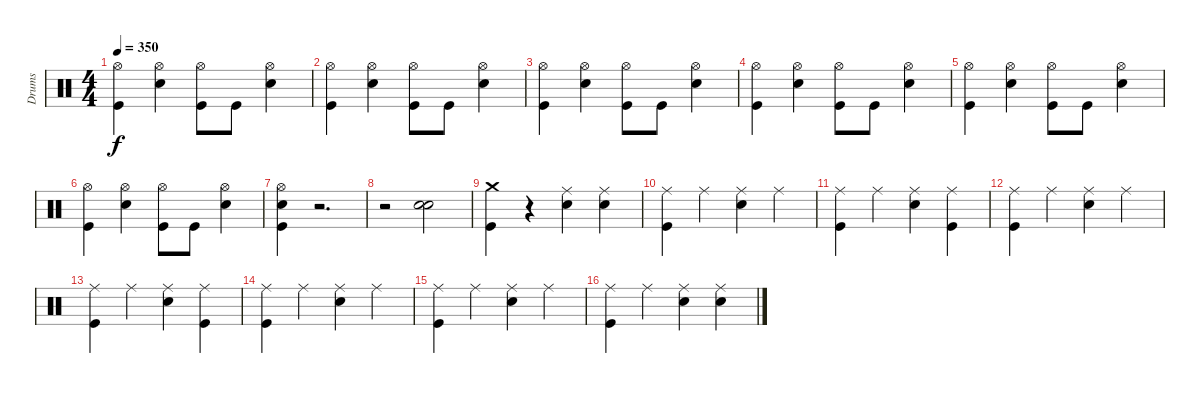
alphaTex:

\track ("Drums" "Drums") {instrument percussion}
\staff {score}
\articulation defaults
\ts (4 4)
\tempo 350
\clef neutral
\ks c
("Hi-Hat (open)" "Kick (hit)").4{dy f} ("Hi-Hat (open)" "Snare (hit) 2").4 ("Hi-Hat (open)" "Kick (hit)").8 "Kick (hit)".8 ("Hi-Hat (open)" "Snare (hit) 2").4 |
("Hi-Hat (open)" "Kick (hit)").4 ("Hi-Hat (open)" "Snare (hit) 2").4 ("Hi-Hat (open)" "Kick (hit)").8 "Kick (hit)".8 ("Hi-Hat (open)" "Snare (hit) 2").4 |
("Hi-Hat (open)" "Kick (hit)").4 ("Hi-Hat (open)" "Snare (hit) 2").4 ("Hi-Hat (open)" "Kick (hit)").8 "Kick (hit)".8 ("Hi-Hat (open)" "Snare (hit) 2").4 |
("Hi-Hat (open)" "Kick (hit)").4 ("Hi-Hat (open)" "Snare (hit) 2").4 ("Hi-Hat (open)" "Kick (hit)").8 "Kick (hit)".8 ("Hi-Hat (open)" "Snare (hit) 2").4 |
("Hi-Hat (open)" "Kick (hit)").4 ("Hi-Hat (open)" "Snare (hit) 2").4 ("Hi-Hat (open)" "Kick (hit)").8 "Kick (hit)".8 ("Hi-Hat (open)" "Snare (hit) 2").4 |
("Hi-Hat (open)" "Kick (hit)").4 ("Hi-Hat (open)" "Snare (hit) 2").4 ("Hi-Hat (open)" "Kick (hit)").8 "Kick (hit)".8 ("Hi-Hat (open)" "Snare (hit) 2").4 |
("Hi-Hat (open)" "Snare (hit) 2" "Kick (hit)").4 r.2{d} |
r.2 ("Snare (hit) 2" "Snare (hit) 2").2 |
("Crash medium (hit)" "Kick (hit)").4 r.4 ("Ride (middle)" "Snare (hit) 2").4 ("Ride (middle)" "Snare (hit) 2").4 |
("Ride (middle)" "Kick (hit)").4 "Ride (middle)".4 ("Ride (middle)" "Snare (hit) 2").4 "Ride (middle)".4 |
("Ride (middle)" "Kick (hit)").4 "Ride (middle)".4 ("Ride (middle)" "Snare (hit) 2").4 ("Ride (middle)" "Kick (hit)").4 |
("Ride (middle)" "Kick (hit)").4 "Ride (middle)".4 ("Ride (middle)" "Snare (hit) 2").4 "Ride (middle)".4 |
("Ride (middle)" "Kick (hit)").4 "Ride (middle)".4 ("Ride (middle)" "Snare (hit) 2").4 ("Ride (middle)" "Kick (hit)").4 |
("Ride (middle)" "Kick (hit)").4 "Ride (middle)".4 ("Ride (middle)" "Snare (hit) 2").4 "Ride (middle)".4 |
("Ride (middle)" "Kick (hit)").4 "Ride (middle)".4 ("Ride (middle)" "Snare (hit) 2").4 "Ride (middle)".4 |
("Ride (middle)" "Kick (hit)").4 "Ride (middle)".4 ("Ride (middle)" "Snare (hit) 2").4 ("Ride (middle)" "Snare (hit) 2").4
